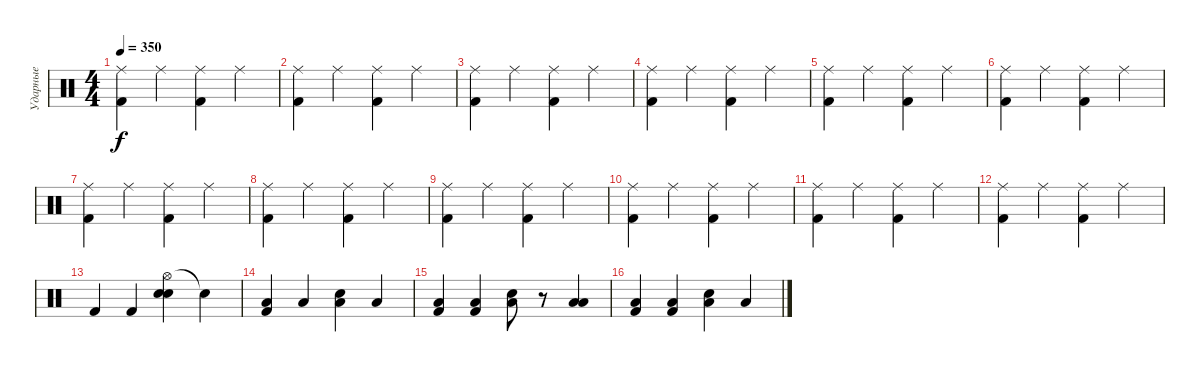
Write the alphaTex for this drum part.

\track ("Ударные" "Ударные") {instrument percussion}
\staff {score}
\articulation defaults
\ts (4 4)
\tempo 350
\clef neutral
\ks c
("Ride (middle)" "Kick (hit) 2").4{dy f} "Ride (middle)".4 ("Ride (middle)" "Kick (hit) 2").4 "Ride (middle)".4 |
("Ride (middle)" "Kick (hit) 2").4 "Ride (middle)".4 ("Ride (middle)" "Kick (hit) 2").4 "Ride (middle)".4 |
("Ride (middle)" "Kick (hit) 2").4 "Ride (middle)".4 ("Ride (middle)" "Kick (hit) 2").4 "Ride (middle)".4 |
("Ride (middle)" "Kick (hit) 2").4 "Ride (middle)".4 ("Ride (middle)" "Kick (hit) 2").4 "Ride (middle)".4 |
("Ride (middle)" "Kick (hit) 2").4 "Ride (middle)".4 ("Ride (middle)" "Kick (hit) 2").4 "Ride (middle)".4 |
("Ride (middle)" "Kick (hit) 2").4 "Ride (middle)".4 ("Ride (middle)" "Kick (hit) 2").4 "Ride (middle)".4 |
("Ride (middle)" "Kick (hit) 2").4 "Ride (middle)".4 ("Ride (middle)" "Kick (hit) 2").4 "Ride (middle)".4 |
("Ride (middle)" "Kick (hit) 2").4 "Ride (middle)".4 ("Ride (middle)" "Kick (hit) 2").4 "Ride (middle)".4 |
("Ride (middle)" "Kick (hit) 2").4 "Ride (middle)".4 ("Ride (middle)" "Kick (hit) 2").4 "Ride (middle)".4 |
("Ride (middle)" "Kick (hit) 2").4 "Ride (middle)".4 ("Ride (middle)" "Kick (hit) 2").4 "Ride (middle)".4 |
("Ride (middle)" "Kick (hit) 2").4 "Ride (middle)".4 ("Ride (middle)" "Kick (hit) 2").4 "Ride (middle)".4 |
("Ride (middle)" "Kick (hit) 2").4 "Ride (middle)".4 ("Ride (middle)" "Kick (hit) 2").4 "Ride (middle)".4 |
"Kick (hit) 2".4 "Kick (hit) 2".4 ("Hi-Hat (open)" "Electric Snare (hit)" "Electric Snare (hit)").4 "Snare (hit)"{t}.4 |
("Low Floor Tom (hit)" "Kick (hit) 2").4 "Low Floor Tom (hit)".4 ("Low Floor Tom (hit)" "Electric Snare (hit)").4 "Low Floor Tom (hit)".4 |
("Low Floor Tom (hit)" "Kick (hit) 2").4 ("Low Floor Tom (hit)" "Kick (hit) 2").4 ("Low Floor Tom (hit)" "Electric Snare (hit)").8 r.8 ("Low Floor Tom (hit)" "Low Tom (hit)").4 |
("Low Floor Tom (hit)" "Kick (hit) 2").4 ("Low Floor Tom (hit)" "Kick (hit) 2").4 ("Low Floor Tom (hit)" "Electric Snare (hit)").4 "Low Floor Tom (hit)".4
